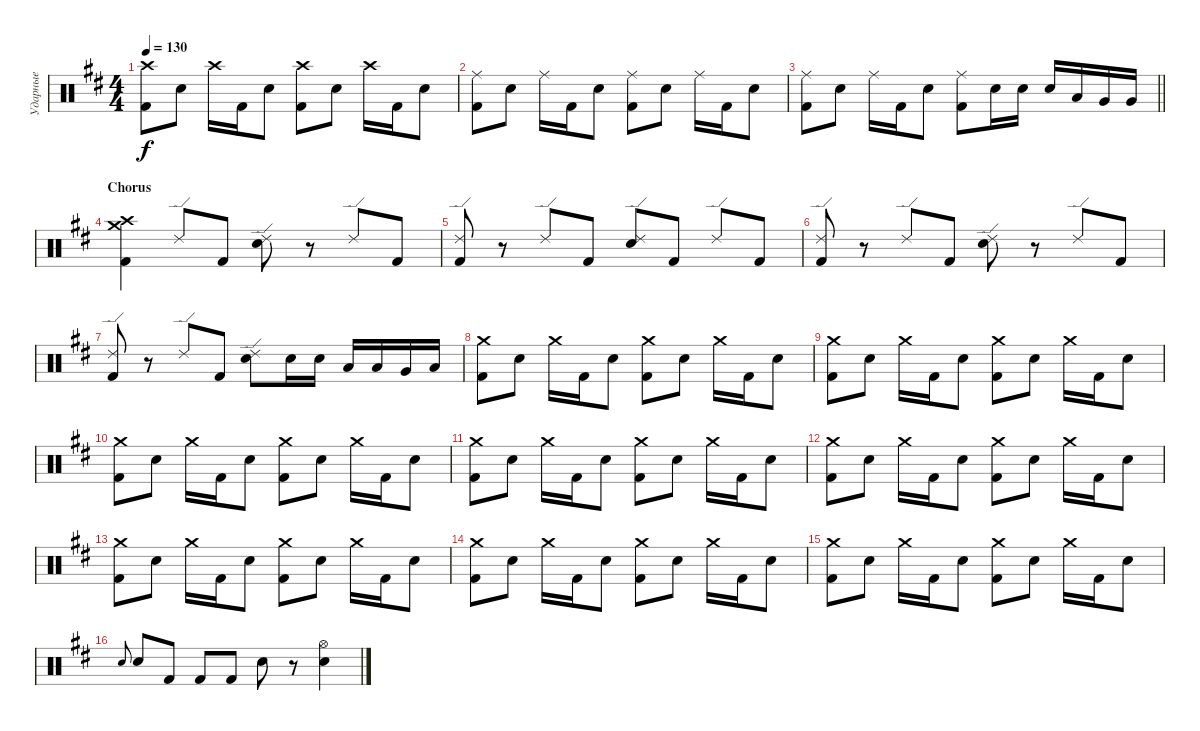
\track ("Ударные" "Ударные") {instrument percussion}
\staff {score}
\articulation defaults
\ts (4 4)
\tempo 130
\clef neutral
\ks d
("Crash high (hit)" "Kick (hit) 2").8{dy f} "Electric Snare (hit)".8 "Crash high (hit)".16 "Kick (hit) 2".16 "Electric Snare (hit)".8 ("Crash high (hit)" "Kick (hit) 2").8 "Electric Snare (hit)".8 "Crash high (hit)".16 "Kick (hit) 2".16 "Electric Snare (hit)".8 |
("Ride (middle)" "Kick (hit) 2").8 "Electric Snare (hit)".8 "Ride (middle)".16 "Kick (hit) 2".16 "Electric Snare (hit)".8 ("Ride (middle)" "Kick (hit) 2").8 "Electric Snare (hit)".8 "Ride (middle)".16 "Kick (hit) 2".16 "Electric Snare (hit)".8 |
\barLineRight lightlight
("Ride (middle)" "Kick (hit) 2").8 "Electric Snare (hit)".8 "Ride (middle)".16 "Kick (hit) 2".16 "Electric Snare (hit)".8 ("Ride (middle)" "Kick (hit) 2").8 "Electric Snare (hit)".16 "Electric Snare (hit)".16 "Electric Snare (hit)".16 "Low Tom (hit)".16 "Very Low Tom (hit)".16 "Very Low Tom (hit)".16 |
\section ("" "Chorus")
("Crash medium (hit)" "Crash high (hit)" "Kick (hit) 2").4 "Ride (edge) 2".8 "Kick (hit) 2".8 ("Ride (edge) 2" "Electric Snare (hit)").8 r.8 "Ride (edge) 2".8 "Kick (hit) 2".8 |
("Ride (edge) 2" "Kick (hit) 2").8 r.8 "Ride (edge) 2".8 "Kick (hit) 2".8 ("Ride (edge) 2" "Electric Snare (hit)").8 "Kick (hit) 2".8 "Ride (edge) 2".8 "Kick (hit) 2".8 |
("Ride (edge) 2" "Kick (hit) 2").8 r.8 "Ride (edge) 2".8 "Kick (hit) 2".8 ("Ride (edge) 2" "Electric Snare (hit)").8 r.8 "Ride (edge) 2".8 "Kick (hit) 2".8 |
("Ride (edge) 2" "Kick (hit) 2").8 r.8 "Ride (edge) 2".8 "Kick (hit) 2".8 ("Ride (edge) 2" "Electric Snare (hit)").8 "Electric Snare (hit)".16 "Electric Snare (hit)".16 "Low Tom (hit)".16 "Low Tom (hit)".16 "Very Low Tom (hit)".16 "Low Floor Tom (hit)".16 |
("Crash medium (hit)" "Kick (hit) 2").8 "Electric Snare (hit)".8 "Crash medium (hit)".16 "Kick (hit) 2".16 "Electric Snare (hit)".8 ("Crash medium (hit)" "Kick (hit) 2").8 "Electric Snare (hit)".8 "Crash medium (hit)".16 "Kick (hit) 2".16 "Electric Snare (hit)".8 |
("Crash medium (hit)" "Kick (hit) 2").8 "Electric Snare (hit)".8 "Crash medium (hit)".16 "Kick (hit) 2".16 "Electric Snare (hit)".8 ("Crash medium (hit)" "Kick (hit) 2").8 "Electric Snare (hit)".8 "Crash medium (hit)".16 "Kick (hit) 2".16 "Electric Snare (hit)".8 |
("Crash medium (hit)" "Kick (hit) 2").8 "Electric Snare (hit)".8 "Crash medium (hit)".16 "Kick (hit) 2".16 "Electric Snare (hit)".8 ("Crash medium (hit)" "Kick (hit) 2").8 "Electric Snare (hit)".8 "Crash medium (hit)".16 "Kick (hit) 2".16 "Electric Snare (hit)".8 |
("Crash medium (hit)" "Kick (hit) 2").8 "Electric Snare (hit)".8 "Crash medium (hit)".16 "Kick (hit) 2".16 "Electric Snare (hit)".8 ("Crash medium (hit)" "Kick (hit) 2").8 "Electric Snare (hit)".8 "Crash medium (hit)".16 "Kick (hit) 2".16 "Electric Snare (hit)".8 |
("Crash medium (hit)" "Kick (hit) 2").8 "Electric Snare (hit)".8 "Crash medium (hit)".16 "Kick (hit) 2".16 "Electric Snare (hit)".8 ("Crash medium (hit)" "Kick (hit) 2").8 "Electric Snare (hit)".8 "Crash medium (hit)".16 "Kick (hit) 2".16 "Electric Snare (hit)".8 |
("Crash medium (hit)" "Kick (hit) 2").8 "Electric Snare (hit)".8 "Crash medium (hit)".16 "Kick (hit) 2".16 "Electric Snare (hit)".8 ("Crash medium (hit)" "Kick (hit) 2").8 "Electric Snare (hit)".8 "Crash medium (hit)".16 "Kick (hit) 2".16 "Electric Snare (hit)".8 |
("Crash medium (hit)" "Kick (hit) 2").8 "Electric Snare (hit)".8 "Crash medium (hit)".16 "Kick (hit) 2".16 "Electric Snare (hit)".8 ("Crash medium (hit)" "Kick (hit) 2").8 "Electric Snare (hit)".8 "Crash medium (hit)".16 "Kick (hit) 2".16 "Electric Snare (hit)".8 |
("Crash medium (hit)" "Kick (hit) 2").8 "Electric Snare (hit)".8 "Crash medium (hit)".16 "Kick (hit) 2".16 "Electric Snare (hit)".8 ("Crash medium (hit)" "Kick (hit) 2").8 "Electric Snare (hit)".8 "Crash medium (hit)".16 "Kick (hit) 2".16 "Electric Snare (hit)".8 |
"Electric Snare (hit)".8{gr onbeat} "Electric Snare (hit)".8 "Kick (hit) 2".8 "Kick (hit) 2".8 "Kick (hit) 2".8 "Electric Snare (hit)".8 r.8 ("Hi-Hat (open)" "Electric Snare (hit)").4
